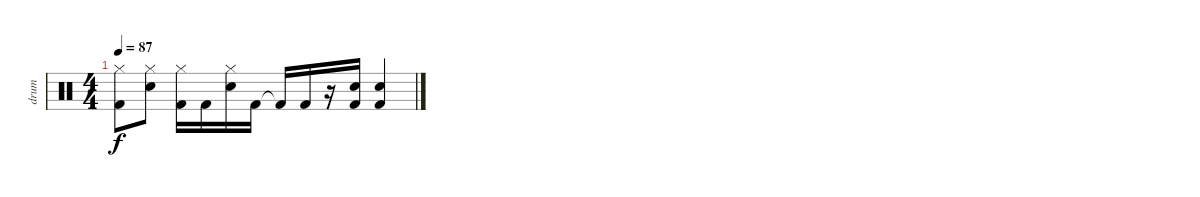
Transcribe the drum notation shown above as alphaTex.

\track ("drum" "drum") {instrument percussion}
\staff {score}
\articulation defaults
\ts (4 4)
\tempo 87
\clef neutral
\ks c
("Hi-Hat (closed)" "Kick (hit) 2").8{dy f} ("Hi-Hat (closed)" "Snare (hit) 2").8 ("Hi-Hat (closed)" "Kick (hit) 2").16 "Kick (hit) 2".16 ("Hi-Hat (closed)" "Snare (hit) 2").16 "Kick (hit) 2".16 "Kick (hit) 2"{t}.16 "Kick (hit) 2".16 r.16 ("Snare (hit) 2" "Kick (hit) 2").16 ("Snare (hit) 2" "Kick (hit) 2").4
